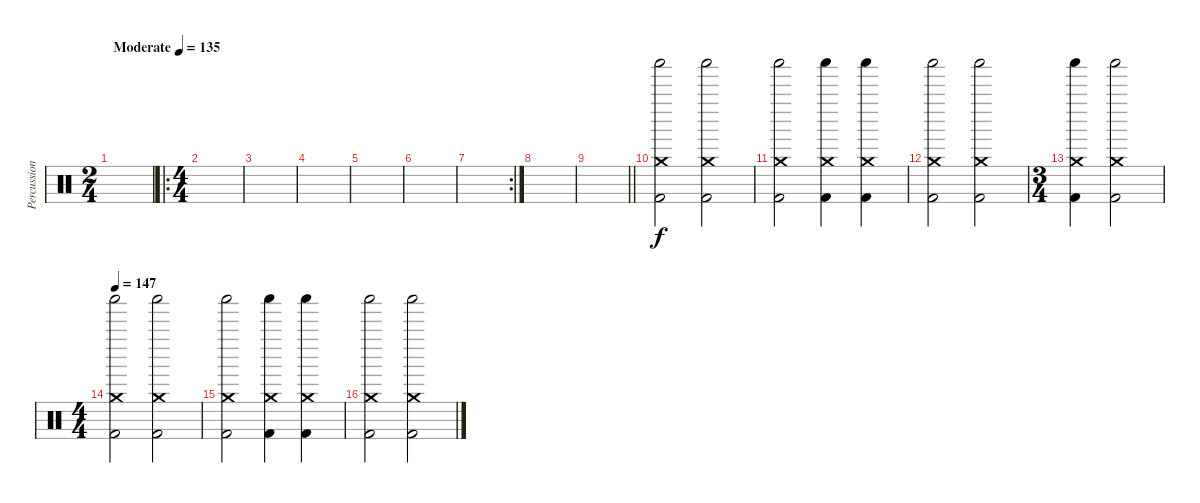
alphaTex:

\track ("Percussioni" "Percussion") {instrument percussion}
\staff {score}
\articulation defaults
\ts (2 4)
\tempo (135 "Moderate")
\clef neutral
\ks c
|
\ro
\ts (4 4)
|
|
|
|
|
\rc 2
|
|
\barLineRight lightlight
|
("Kick (hit) 2" "Shaker (hit)" "Crash medium (hit)").2 ("Kick (hit) 2" "Shaker (hit)" "Crash medium (hit)").2 |
("Kick (hit) 2" "Shaker (hit)" "Crash medium (hit)").2 ("Kick (hit) 2" "Shaker (hit)" "Crash medium (hit)").4 ("Kick (hit) 2" "Shaker (hit)" "Crash medium (hit)").4 |
("Kick (hit) 2" "Shaker (hit)" "Crash medium (hit)").2 ("Kick (hit) 2" "Shaker (hit)" "Crash medium (hit)").2 |
\ts (3 4)
("Kick (hit) 2" "Shaker (hit)" "Crash medium (hit)").4 ("Kick (hit) 2" "Shaker (hit)" "Crash medium (hit)").2 |
\ts (4 4)
\tempo 147
("Kick (hit) 2" "Shaker (hit)" "Crash medium (hit)").2 ("Kick (hit) 2" "Shaker (hit)" "Crash medium (hit)").2 |
("Kick (hit) 2" "Shaker (hit)" "Crash medium (hit)").2 ("Kick (hit) 2" "Shaker (hit)" "Crash medium (hit)").4 ("Kick (hit) 2" "Shaker (hit)" "Crash medium (hit)").4 |
("Kick (hit) 2" "Shaker (hit)" "Crash medium (hit)").2 ("Kick (hit) 2" "Shaker (hit)" "Crash medium (hit)").2
